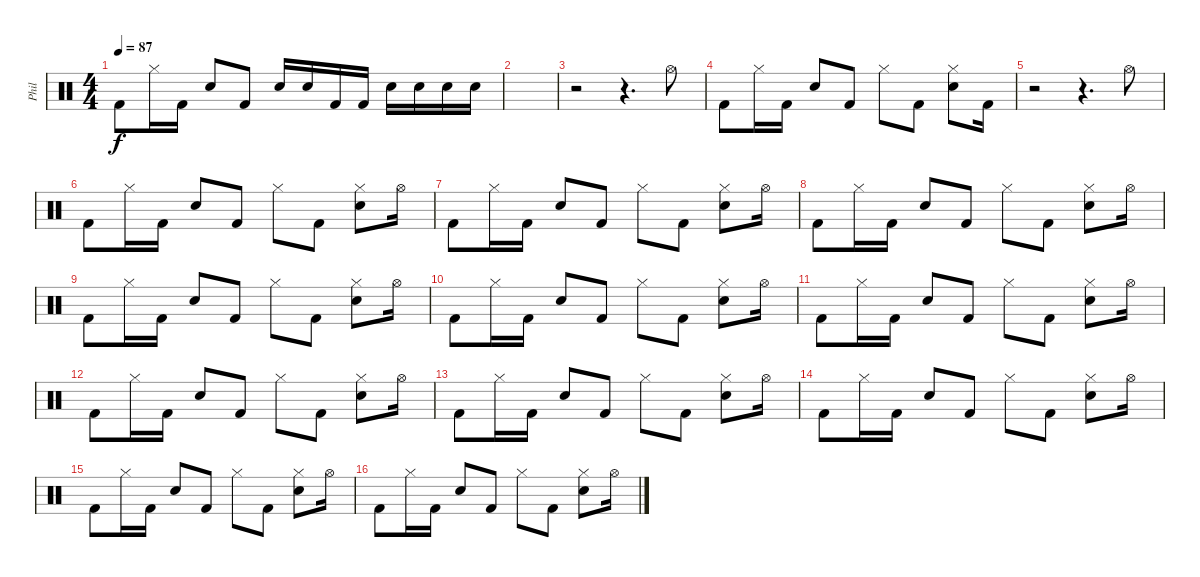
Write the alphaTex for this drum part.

\track ("Phil" "Phil") {instrument percussion}
\staff {score}
\articulation defaults
\ts (4 4)
\tempo 87
\clef neutral
\ks c "Kick (hit) 2".8{dy f} "Hi-Hat (closed)".16 "Kick (hit) 2".16 "Snare (hit) 2".8 "Kick (hit) 2".8 "Snare (hit) 2".16 "Snare (hit) 2".16 "Kick (hit) 2".16 "Kick (hit) 2".16 "Snare (hit) 2".16 "Snare (hit) 2".16 "Snare (hit) 2".16 "Snare (hit) 2".16
|
|
r.2 r.4{d} "Hi-Hat (open)".8 |
"Kick (hit) 2".8 "Hi-Hat (closed)".16 "Kick (hit) 2".16 "Snare (hit) 2".8 "Kick (hit) 2".8 "Hi-Hat (closed)".8 "Kick (hit) 2".8 ("Snare (hit) 2" "Hi-Hat (closed)").8 "Kick (hit) 2".16 |
r.2 r.4{d} "Hi-Hat (open)".8 |
"Kick (hit) 2".8 "Hi-Hat (closed)".16 "Kick (hit) 2".16 "Snare (hit) 2".8 "Kick (hit) 2".8 "Hi-Hat (closed)".8 "Kick (hit) 2".8 ("Snare (hit) 2" "Hi-Hat (closed)").8 "Hi-Hat (open)".16 |
"Kick (hit) 2".8 "Hi-Hat (closed)".16 "Kick (hit) 2".16 "Snare (hit) 2".8 "Kick (hit) 2".8 "Hi-Hat (closed)".8 "Kick (hit) 2".8 ("Snare (hit) 2" "Hi-Hat (closed)").8 "Hi-Hat (open)".16 |
"Kick (hit) 2".8 "Hi-Hat (closed)".16 "Kick (hit) 2".16 "Snare (hit) 2".8 "Kick (hit) 2".8 "Hi-Hat (closed)".8 "Kick (hit) 2".8 ("Snare (hit) 2" "Hi-Hat (closed)").8 "Hi-Hat (open)".16 |
"Kick (hit) 2".8 "Hi-Hat (closed)".16 "Kick (hit) 2".16 "Snare (hit) 2".8 "Kick (hit) 2".8 "Hi-Hat (closed)".8 "Kick (hit) 2".8 ("Snare (hit) 2" "Hi-Hat (closed)").8 "Hi-Hat (open)".16 |
"Kick (hit) 2".8 "Hi-Hat (closed)".16 "Kick (hit) 2".16 "Snare (hit) 2".8 "Kick (hit) 2".8 "Hi-Hat (closed)".8 "Kick (hit) 2".8 ("Snare (hit) 2" "Hi-Hat (closed)").8 "Hi-Hat (open)".16 |
"Kick (hit) 2".8 "Hi-Hat (closed)".16 "Kick (hit) 2".16 "Snare (hit) 2".8 "Kick (hit) 2".8 "Hi-Hat (closed)".8 "Kick (hit) 2".8 ("Snare (hit) 2" "Hi-Hat (closed)").8 "Hi-Hat (open)".16 |
"Kick (hit) 2".8 "Hi-Hat (closed)".16 "Kick (hit) 2".16 "Snare (hit) 2".8 "Kick (hit) 2".8 "Hi-Hat (closed)".8 "Kick (hit) 2".8 ("Snare (hit) 2" "Hi-Hat (closed)").8 "Hi-Hat (open)".16 |
"Kick (hit) 2".8 "Hi-Hat (closed)".16 "Kick (hit) 2".16 "Snare (hit) 2".8 "Kick (hit) 2".8 "Hi-Hat (closed)".8 "Kick (hit) 2".8 ("Snare (hit) 2" "Hi-Hat (closed)").8 "Hi-Hat (open)".16 |
"Kick (hit) 2".8 "Hi-Hat (closed)".16 "Kick (hit) 2".16 "Snare (hit) 2".8 "Kick (hit) 2".8 "Hi-Hat (closed)".8 "Kick (hit) 2".8 ("Snare (hit) 2" "Hi-Hat (closed)").8 "Hi-Hat (open)".16 |
"Kick (hit) 2".8 "Hi-Hat (closed)".16 "Kick (hit) 2".16 "Snare (hit) 2".8 "Kick (hit) 2".8 "Hi-Hat (closed)".8 "Kick (hit) 2".8 ("Snare (hit) 2" "Hi-Hat (closed)").8 "Hi-Hat (open)".16 |
"Kick (hit) 2".8 "Hi-Hat (closed)".16 "Kick (hit) 2".16 "Snare (hit) 2".8 "Kick (hit) 2".8 "Hi-Hat (closed)".8 "Kick (hit) 2".8 ("Snare (hit) 2" "Hi-Hat (closed)").8 "Hi-Hat (open)".16
